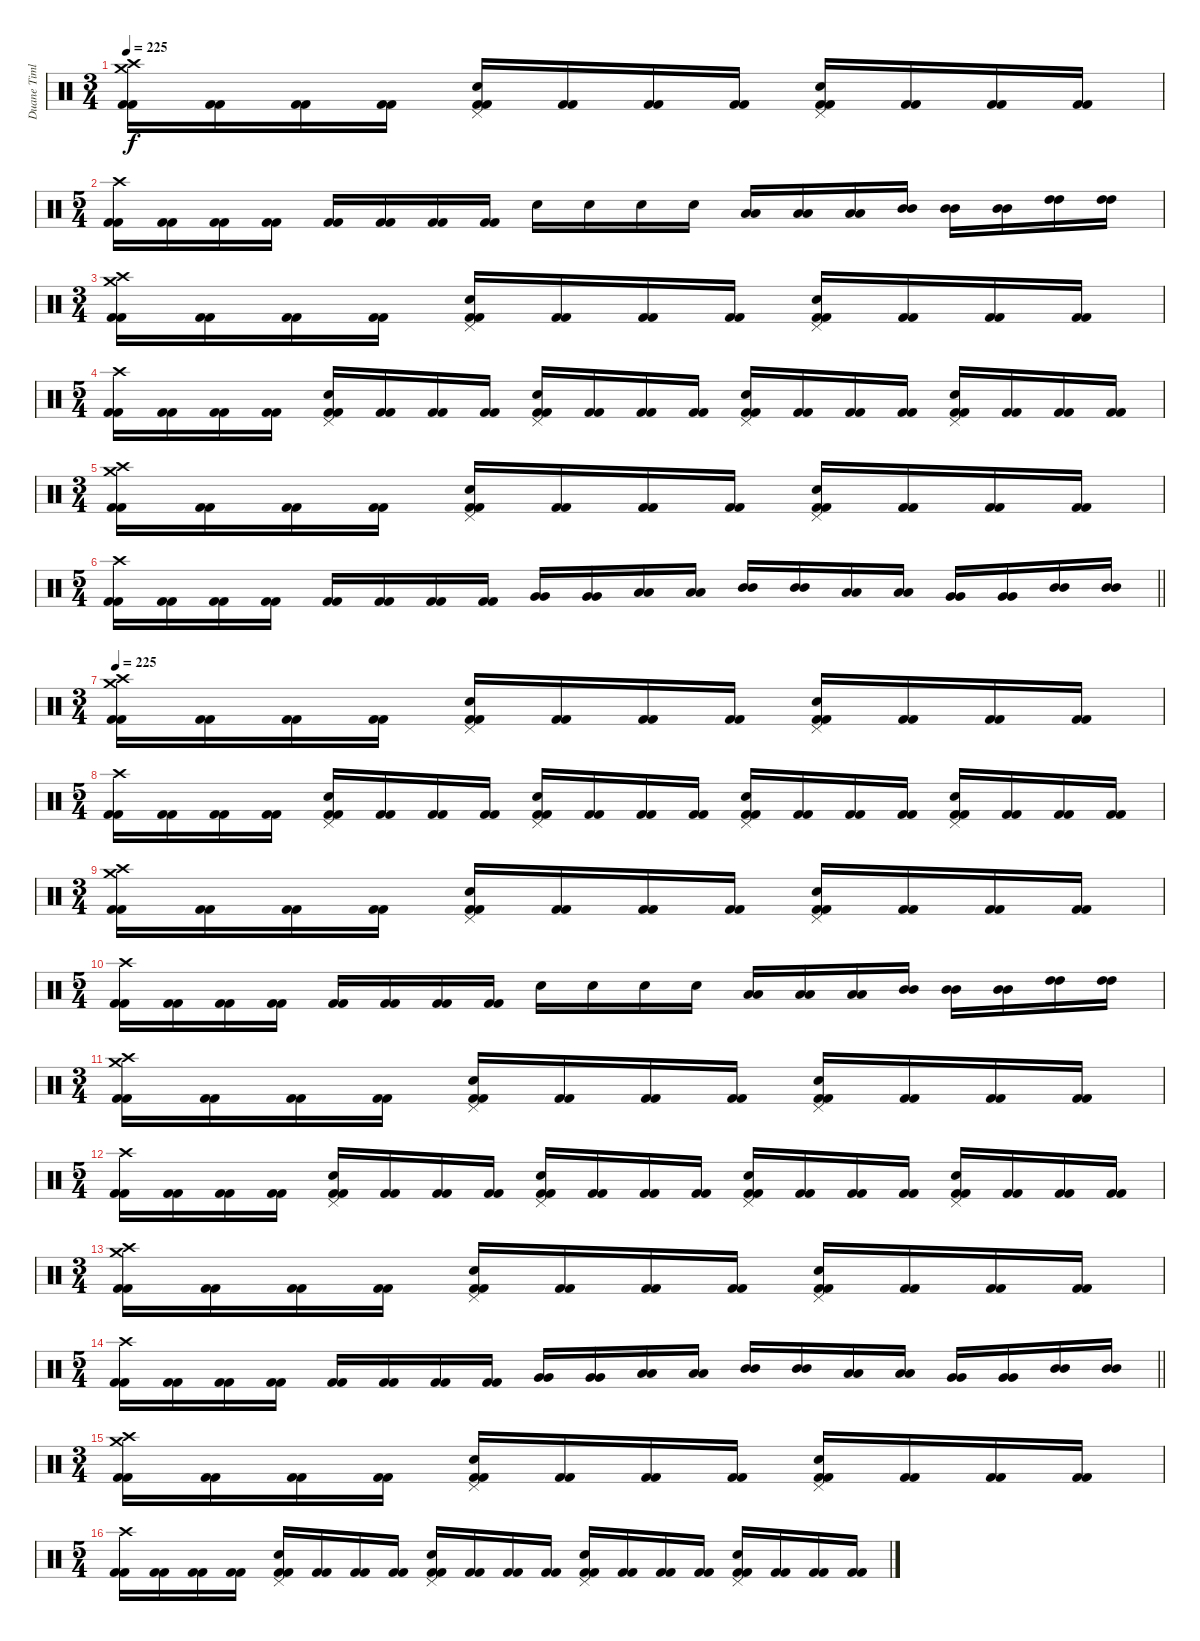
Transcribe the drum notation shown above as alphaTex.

\track ("Duane Timlin" "Duane Timl") {instrument percussion}
\staff {score}
\articulation defaults
\ts (3 4)
\tempo 225
\clef neutral
\ks c
("Crash medium (hit)" "Crash high (hit)" "Kick (hit) 2" "Kick (hit) 2").16{dy f} ("Kick (hit) 2" "Kick (hit) 2").16 ("Kick (hit) 2" "Kick (hit) 2").16 ("Kick (hit) 2" "Kick (hit) 2").16 ("Pedal Hi-Hat (hit)" "Electric Snare (hit)" "Kick (hit) 2" "Kick (hit) 2").16 ("Kick (hit) 2" "Kick (hit) 2").16 ("Kick (hit) 2" "Kick (hit) 2").16 ("Kick (hit) 2" "Kick (hit) 2").16 ("Pedal Hi-Hat (hit)" "Electric Snare (hit)" "Kick (hit) 2" "Kick (hit) 2").16 ("Kick (hit) 2" "Kick (hit) 2").16 ("Kick (hit) 2" "Kick (hit) 2").16 ("Kick (hit) 2" "Kick (hit) 2").16 |
\ts (5 4)
("Crash high (hit)" "Kick (hit) 2" "Kick (hit) 2").16 ("Kick (hit) 2" "Kick (hit) 2").16 ("Kick (hit) 2" "Kick (hit) 2").16 ("Kick (hit) 2" "Kick (hit) 2").16 ("Kick (hit) 2" "Kick (hit) 2").16 ("Kick (hit) 2" "Kick (hit) 2").16 ("Kick (hit) 2" "Kick (hit) 2").16 ("Kick (hit) 2" "Kick (hit) 2").16 "Electric Snare (hit)".16 "Electric Snare (hit)".16 "Electric Snare (hit)".16 "Electric Snare (hit)".16 ("Low Tom (hit)" "Low Tom (hit)").16 ("Low Tom (hit)" "Low Tom (hit)").16 ("Low Tom (hit)" "Low Tom (hit)").16 ("Mid Tom (hit)" "Mid Tom (hit)").16 ("Mid Tom (hit)" "Mid Tom (hit)").16 ("Mid Tom (hit)" "Mid Tom (hit)").16 ("High Tom (hit)" "High Tom (hit)").16 ("High Tom (hit)" "High Tom (hit)").16 |
\ts (3 4)
("Crash medium (hit)" "Crash high (hit)" "Kick (hit) 2" "Kick (hit) 2").16 ("Kick (hit) 2" "Kick (hit) 2").16 ("Kick (hit) 2" "Kick (hit) 2").16 ("Kick (hit) 2" "Kick (hit) 2").16 ("Pedal Hi-Hat (hit)" "Electric Snare (hit)" "Kick (hit) 2" "Kick (hit) 2").16 ("Kick (hit) 2" "Kick (hit) 2").16 ("Kick (hit) 2" "Kick (hit) 2").16 ("Kick (hit) 2" "Kick (hit) 2").16 ("Pedal Hi-Hat (hit)" "Electric Snare (hit)" "Kick (hit) 2" "Kick (hit) 2").16 ("Kick (hit) 2" "Kick (hit) 2").16 ("Kick (hit) 2" "Kick (hit) 2").16 ("Kick (hit) 2" "Kick (hit) 2").16 |
\ts (5 4)
("Crash high (hit)" "Kick (hit) 2" "Kick (hit) 2").16 ("Kick (hit) 2" "Kick (hit) 2").16 ("Kick (hit) 2" "Kick (hit) 2").16 ("Kick (hit) 2" "Kick (hit) 2").16 ("Pedal Hi-Hat (hit)" "Electric Snare (hit)" "Kick (hit) 2" "Kick (hit) 2").16 ("Kick (hit) 2" "Kick (hit) 2").16 ("Kick (hit) 2" "Kick (hit) 2").16 ("Kick (hit) 2" "Kick (hit) 2").16 ("Pedal Hi-Hat (hit)" "Electric Snare (hit)" "Kick (hit) 2" "Kick (hit) 2").16 ("Kick (hit) 2" "Kick (hit) 2").16 ("Kick (hit) 2" "Kick (hit) 2").16 ("Kick (hit) 2" "Kick (hit) 2").16 ("Pedal Hi-Hat (hit)" "Electric Snare (hit)" "Kick (hit) 2" "Kick (hit) 2").16 ("Kick (hit) 2" "Kick (hit) 2").16 ("Kick (hit) 2" "Kick (hit) 2").16 ("Kick (hit) 2" "Kick (hit) 2").16 ("Pedal Hi-Hat (hit)" "Electric Snare (hit)" "Kick (hit) 2" "Kick (hit) 2").16 ("Kick (hit) 2" "Kick (hit) 2").16 ("Kick (hit) 2" "Kick (hit) 2").16 ("Kick (hit) 2" "Kick (hit) 2").16 |
\ts (3 4)
("Crash medium (hit)" "Crash high (hit)" "Kick (hit) 2" "Kick (hit) 2").16 ("Kick (hit) 2" "Kick (hit) 2").16 ("Kick (hit) 2" "Kick (hit) 2").16 ("Kick (hit) 2" "Kick (hit) 2").16 ("Pedal Hi-Hat (hit)" "Electric Snare (hit)" "Kick (hit) 2" "Kick (hit) 2").16 ("Kick (hit) 2" "Kick (hit) 2").16 ("Kick (hit) 2" "Kick (hit) 2").16 ("Kick (hit) 2" "Kick (hit) 2").16 ("Pedal Hi-Hat (hit)" "Electric Snare (hit)" "Kick (hit) 2" "Kick (hit) 2").16 ("Kick (hit) 2" "Kick (hit) 2").16 ("Kick (hit) 2" "Kick (hit) 2").16 ("Kick (hit) 2" "Kick (hit) 2").16 |
\ts (5 4)
\barLineRight lightlight
("Crash high (hit)" "Kick (hit) 2" "Kick (hit) 2").16 ("Kick (hit) 2" "Kick (hit) 2").16 ("Kick (hit) 2" "Kick (hit) 2").16 ("Kick (hit) 2" "Kick (hit) 2").16 ("Kick (hit) 2" "Kick (hit) 2").16 ("Kick (hit) 2" "Kick (hit) 2").16 ("Kick (hit) 2" "Kick (hit) 2").16 ("Kick (hit) 2" "Kick (hit) 2").16 ("Very Low Tom (hit)" "Very Low Tom (hit)").16 ("Very Low Tom (hit)" "Very Low Tom (hit)").16 ("Low Tom (hit)" "Low Tom (hit)").16 ("Low Tom (hit)" "Low Tom (hit)").16 ("Mid Tom (hit)" "Mid Tom (hit)").16 ("Mid Tom (hit)" "Mid Tom (hit)").16 ("Low Tom (hit)" "Low Tom (hit)").16 ("Low Tom (hit)" "Low Tom (hit)").16 ("Very Low Tom (hit)" "Very Low Tom (hit)").16 ("Very Low Tom (hit)" "Very Low Tom (hit)").16 ("Mid Tom (hit)" "Mid Tom (hit)").16 ("Mid Tom (hit)" "Mid Tom (hit)").16 |
\ts (3 4)
\tempo 225
("Crash medium (hit)" "Crash high (hit)" "Kick (hit) 2" "Kick (hit) 2").16 ("Kick (hit) 2" "Kick (hit) 2").16 ("Kick (hit) 2" "Kick (hit) 2").16 ("Kick (hit) 2" "Kick (hit) 2").16 ("Pedal Hi-Hat (hit)" "Electric Snare (hit)" "Kick (hit) 2" "Kick (hit) 2").16 ("Kick (hit) 2" "Kick (hit) 2").16 ("Kick (hit) 2" "Kick (hit) 2").16 ("Kick (hit) 2" "Kick (hit) 2").16 ("Pedal Hi-Hat (hit)" "Electric Snare (hit)" "Kick (hit) 2" "Kick (hit) 2").16 ("Kick (hit) 2" "Kick (hit) 2").16 ("Kick (hit) 2" "Kick (hit) 2").16 ("Kick (hit) 2" "Kick (hit) 2").16 |
\ts (5 4)
("Crash high (hit)" "Kick (hit) 2" "Kick (hit) 2").16 ("Kick (hit) 2" "Kick (hit) 2").16 ("Kick (hit) 2" "Kick (hit) 2").16 ("Kick (hit) 2" "Kick (hit) 2").16 ("Pedal Hi-Hat (hit)" "Electric Snare (hit)" "Kick (hit) 2" "Kick (hit) 2").16 ("Kick (hit) 2" "Kick (hit) 2").16 ("Kick (hit) 2" "Kick (hit) 2").16 ("Kick (hit) 2" "Kick (hit) 2").16 ("Pedal Hi-Hat (hit)" "Electric Snare (hit)" "Kick (hit) 2" "Kick (hit) 2").16 ("Kick (hit) 2" "Kick (hit) 2").16 ("Kick (hit) 2" "Kick (hit) 2").16 ("Kick (hit) 2" "Kick (hit) 2").16 ("Pedal Hi-Hat (hit)" "Electric Snare (hit)" "Kick (hit) 2" "Kick (hit) 2").16 ("Kick (hit) 2" "Kick (hit) 2").16 ("Kick (hit) 2" "Kick (hit) 2").16 ("Kick (hit) 2" "Kick (hit) 2").16 ("Pedal Hi-Hat (hit)" "Electric Snare (hit)" "Kick (hit) 2" "Kick (hit) 2").16 ("Kick (hit) 2" "Kick (hit) 2").16 ("Kick (hit) 2" "Kick (hit) 2").16 ("Kick (hit) 2" "Kick (hit) 2").16 |
\ts (3 4)
("Crash medium (hit)" "Crash high (hit)" "Kick (hit) 2" "Kick (hit) 2").16 ("Kick (hit) 2" "Kick (hit) 2").16 ("Kick (hit) 2" "Kick (hit) 2").16 ("Kick (hit) 2" "Kick (hit) 2").16 ("Pedal Hi-Hat (hit)" "Electric Snare (hit)" "Kick (hit) 2" "Kick (hit) 2").16 ("Kick (hit) 2" "Kick (hit) 2").16 ("Kick (hit) 2" "Kick (hit) 2").16 ("Kick (hit) 2" "Kick (hit) 2").16 ("Pedal Hi-Hat (hit)" "Electric Snare (hit)" "Kick (hit) 2" "Kick (hit) 2").16 ("Kick (hit) 2" "Kick (hit) 2").16 ("Kick (hit) 2" "Kick (hit) 2").16 ("Kick (hit) 2" "Kick (hit) 2").16 |
\ts (5 4)
("Crash high (hit)" "Kick (hit) 2" "Kick (hit) 2").16 ("Kick (hit) 2" "Kick (hit) 2").16 ("Kick (hit) 2" "Kick (hit) 2").16 ("Kick (hit) 2" "Kick (hit) 2").16 ("Kick (hit) 2" "Kick (hit) 2").16 ("Kick (hit) 2" "Kick (hit) 2").16 ("Kick (hit) 2" "Kick (hit) 2").16 ("Kick (hit) 2" "Kick (hit) 2").16 "Electric Snare (hit)".16 "Electric Snare (hit)".16 "Electric Snare (hit)".16 "Electric Snare (hit)".16 ("Low Tom (hit)" "Low Tom (hit)").16 ("Low Tom (hit)" "Low Tom (hit)").16 ("Low Tom (hit)" "Low Tom (hit)").16 ("Mid Tom (hit)" "Mid Tom (hit)").16 ("Mid Tom (hit)" "Mid Tom (hit)").16 ("Mid Tom (hit)" "Mid Tom (hit)").16 ("High Tom (hit)" "High Tom (hit)").16 ("High Tom (hit)" "High Tom (hit)").16 |
\ts (3 4)
("Crash medium (hit)" "Crash high (hit)" "Kick (hit) 2" "Kick (hit) 2").16 ("Kick (hit) 2" "Kick (hit) 2").16 ("Kick (hit) 2" "Kick (hit) 2").16 ("Kick (hit) 2" "Kick (hit) 2").16 ("Pedal Hi-Hat (hit)" "Electric Snare (hit)" "Kick (hit) 2" "Kick (hit) 2").16 ("Kick (hit) 2" "Kick (hit) 2").16 ("Kick (hit) 2" "Kick (hit) 2").16 ("Kick (hit) 2" "Kick (hit) 2").16 ("Pedal Hi-Hat (hit)" "Electric Snare (hit)" "Kick (hit) 2" "Kick (hit) 2").16 ("Kick (hit) 2" "Kick (hit) 2").16 ("Kick (hit) 2" "Kick (hit) 2").16 ("Kick (hit) 2" "Kick (hit) 2").16 |
\ts (5 4)
("Crash high (hit)" "Kick (hit) 2" "Kick (hit) 2").16 ("Kick (hit) 2" "Kick (hit) 2").16 ("Kick (hit) 2" "Kick (hit) 2").16 ("Kick (hit) 2" "Kick (hit) 2").16 ("Pedal Hi-Hat (hit)" "Electric Snare (hit)" "Kick (hit) 2" "Kick (hit) 2").16 ("Kick (hit) 2" "Kick (hit) 2").16 ("Kick (hit) 2" "Kick (hit) 2").16 ("Kick (hit) 2" "Kick (hit) 2").16 ("Pedal Hi-Hat (hit)" "Electric Snare (hit)" "Kick (hit) 2" "Kick (hit) 2").16 ("Kick (hit) 2" "Kick (hit) 2").16 ("Kick (hit) 2" "Kick (hit) 2").16 ("Kick (hit) 2" "Kick (hit) 2").16 ("Pedal Hi-Hat (hit)" "Electric Snare (hit)" "Kick (hit) 2" "Kick (hit) 2").16 ("Kick (hit) 2" "Kick (hit) 2").16 ("Kick (hit) 2" "Kick (hit) 2").16 ("Kick (hit) 2" "Kick (hit) 2").16 ("Pedal Hi-Hat (hit)" "Electric Snare (hit)" "Kick (hit) 2" "Kick (hit) 2").16 ("Kick (hit) 2" "Kick (hit) 2").16 ("Kick (hit) 2" "Kick (hit) 2").16 ("Kick (hit) 2" "Kick (hit) 2").16 |
\ts (3 4)
("Crash medium (hit)" "Crash high (hit)" "Kick (hit) 2" "Kick (hit) 2").16 ("Kick (hit) 2" "Kick (hit) 2").16 ("Kick (hit) 2" "Kick (hit) 2").16 ("Kick (hit) 2" "Kick (hit) 2").16 ("Pedal Hi-Hat (hit)" "Electric Snare (hit)" "Kick (hit) 2" "Kick (hit) 2").16 ("Kick (hit) 2" "Kick (hit) 2").16 ("Kick (hit) 2" "Kick (hit) 2").16 ("Kick (hit) 2" "Kick (hit) 2").16 ("Pedal Hi-Hat (hit)" "Electric Snare (hit)" "Kick (hit) 2" "Kick (hit) 2").16 ("Kick (hit) 2" "Kick (hit) 2").16 ("Kick (hit) 2" "Kick (hit) 2").16 ("Kick (hit) 2" "Kick (hit) 2").16 |
\ts (5 4)
\barLineRight lightlight
("Crash high (hit)" "Kick (hit) 2" "Kick (hit) 2").16 ("Kick (hit) 2" "Kick (hit) 2").16 ("Kick (hit) 2" "Kick (hit) 2").16 ("Kick (hit) 2" "Kick (hit) 2").16 ("Kick (hit) 2" "Kick (hit) 2").16 ("Kick (hit) 2" "Kick (hit) 2").16 ("Kick (hit) 2" "Kick (hit) 2").16 ("Kick (hit) 2" "Kick (hit) 2").16 ("Very Low Tom (hit)" "Very Low Tom (hit)").16 ("Very Low Tom (hit)" "Very Low Tom (hit)").16 ("Low Tom (hit)" "Low Tom (hit)").16 ("Low Tom (hit)" "Low Tom (hit)").16 ("Mid Tom (hit)" "Mid Tom (hit)").16 ("Mid Tom (hit)" "Mid Tom (hit)").16 ("Low Tom (hit)" "Low Tom (hit)").16 ("Low Tom (hit)" "Low Tom (hit)").16 ("Very Low Tom (hit)" "Very Low Tom (hit)").16 ("Very Low Tom (hit)" "Very Low Tom (hit)").16 ("Mid Tom (hit)" "Mid Tom (hit)").16 ("Mid Tom (hit)" "Mid Tom (hit)").16 |
\ts (3 4)
("Crash medium (hit)" "Crash high (hit)" "Kick (hit) 2" "Kick (hit) 2").16 ("Kick (hit) 2" "Kick (hit) 2").16 ("Kick (hit) 2" "Kick (hit) 2").16 ("Kick (hit) 2" "Kick (hit) 2").16 ("Pedal Hi-Hat (hit)" "Electric Snare (hit)" "Kick (hit) 2" "Kick (hit) 2").16 ("Kick (hit) 2" "Kick (hit) 2").16 ("Kick (hit) 2" "Kick (hit) 2").16 ("Kick (hit) 2" "Kick (hit) 2").16 ("Pedal Hi-Hat (hit)" "Electric Snare (hit)" "Kick (hit) 2" "Kick (hit) 2").16 ("Kick (hit) 2" "Kick (hit) 2").16 ("Kick (hit) 2" "Kick (hit) 2").16 ("Kick (hit) 2" "Kick (hit) 2").16 |
\ts (5 4)
("Crash high (hit)" "Kick (hit) 2" "Kick (hit) 2").16 ("Kick (hit) 2" "Kick (hit) 2").16 ("Kick (hit) 2" "Kick (hit) 2").16 ("Kick (hit) 2" "Kick (hit) 2").16 ("Pedal Hi-Hat (hit)" "Electric Snare (hit)" "Kick (hit) 2" "Kick (hit) 2").16 ("Kick (hit) 2" "Kick (hit) 2").16 ("Kick (hit) 2" "Kick (hit) 2").16 ("Kick (hit) 2" "Kick (hit) 2").16 ("Pedal Hi-Hat (hit)" "Electric Snare (hit)" "Kick (hit) 2" "Kick (hit) 2").16 ("Kick (hit) 2" "Kick (hit) 2").16 ("Kick (hit) 2" "Kick (hit) 2").16 ("Kick (hit) 2" "Kick (hit) 2").16 ("Pedal Hi-Hat (hit)" "Electric Snare (hit)" "Kick (hit) 2" "Kick (hit) 2").16 ("Kick (hit) 2" "Kick (hit) 2").16 ("Kick (hit) 2" "Kick (hit) 2").16 ("Kick (hit) 2" "Kick (hit) 2").16 ("Pedal Hi-Hat (hit)" "Electric Snare (hit)" "Kick (hit) 2" "Kick (hit) 2").16 ("Kick (hit) 2" "Kick (hit) 2").16 ("Kick (hit) 2" "Kick (hit) 2").16 ("Kick (hit) 2" "Kick (hit) 2").16
